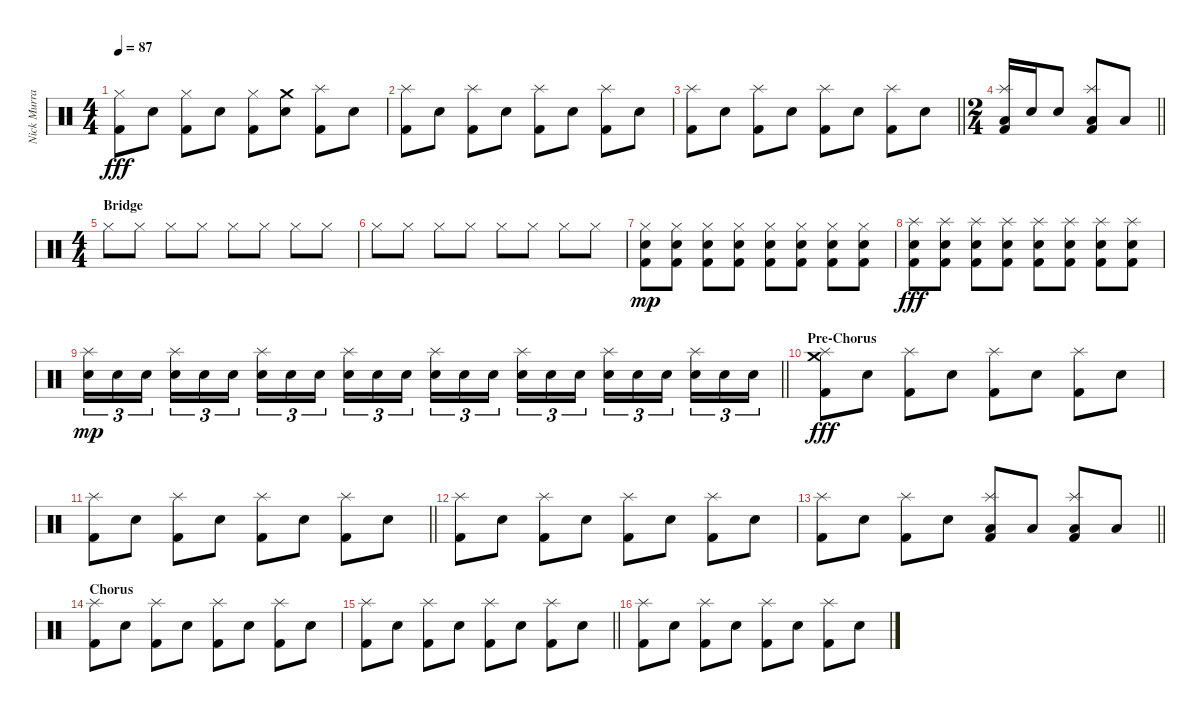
\track ("Nick Murray" "Nick Murra") {instrument percussion}
\staff {score}
\articulation defaults
\ts (4 4)
\tempo 87
\clef neutral
\ks c
("Hi-Hat (closed)" "Kick (hit) 2").8{dy fff} "Electric Snare (hit)".8 ("Hi-Hat (closed)" "Kick (hit) 2").8 "Electric Snare (hit)".8 ("Hi-Hat (closed)" "Kick (hit) 2").8 ("Crash medium (hit)" "Electric Snare (hit)").8 ("Splash (hit)" "Kick (hit) 2").8 "Electric Snare (hit)".8 |
("Splash (hit)" "Kick (hit) 2").8 "Electric Snare (hit)".8 ("Splash (hit)" "Kick (hit) 2").8 "Electric Snare (hit)".8 ("Splash (hit)" "Kick (hit) 2").8 "Electric Snare (hit)".8 ("Splash (hit)" "Kick (hit) 2").8 "Electric Snare (hit)".8 |
\barLineRight lightlight
("Splash (hit)" "Kick (hit) 2").8 "Electric Snare (hit)".8 ("Splash (hit)" "Kick (hit) 2").8 "Electric Snare (hit)".8 ("Splash (hit)" "Kick (hit) 2").8 "Electric Snare (hit)".8 ("Splash (hit)" "Kick (hit) 2").8 "Electric Snare (hit)".8 |
\ts (2 4)
\barLineRight lightlight
("Splash (hit)" "Low Floor Tom (hit)" "Kick (hit) 2").16 "Electric Snare (hit)".16 "Electric Snare (hit)".8 ("Splash (hit)" "Low Floor Tom (hit)" "Kick (hit) 2").8 "Low Floor Tom (hit)".8 |
\ts (4 4)
\section ("" "Bridge")
"Hi-Hat (closed)".8 "Hi-Hat (closed)".8 "Hi-Hat (closed)".8 "Hi-Hat (closed)".8 "Hi-Hat (closed)".8 "Hi-Hat (closed)".8 "Hi-Hat (closed)".8 "Hi-Hat (closed)".8 |
"Hi-Hat (closed)".8 "Hi-Hat (closed)".8 "Hi-Hat (closed)".8 "Hi-Hat (closed)".8 "Hi-Hat (closed)".8 "Hi-Hat (closed)".8 "Hi-Hat (closed)".8 "Hi-Hat (closed)".8 |
("Hi-Hat (closed)" "Electric Snare (hit)" "Kick (hit) 2").8{dy mp} ("Hi-Hat (closed)" "Electric Snare (hit)" "Kick (hit) 2").8 ("Hi-Hat (closed)" "Electric Snare (hit)" "Kick (hit) 2").8 ("Hi-Hat (closed)" "Electric Snare (hit)" "Kick (hit) 2").8 ("Hi-Hat (closed)" "Electric Snare (hit)" "Kick (hit) 2").8 ("Hi-Hat (closed)" "Electric Snare (hit)" "Kick (hit) 2").8 ("Hi-Hat (closed)" "Electric Snare (hit)" "Kick (hit) 2").8 ("Hi-Hat (closed)" "Electric Snare (hit)" "Kick (hit) 2").8 |
("Splash (hit)" "Electric Snare (hit)" "Kick (hit) 2").8{dy fff} ("Splash (hit)" "Electric Snare (hit)" "Kick (hit) 2").8 ("Splash (hit)" "Electric Snare (hit)" "Kick (hit) 2").8 ("Splash (hit)" "Electric Snare (hit)" "Kick (hit) 2").8 ("Splash (hit)" "Electric Snare (hit)" "Kick (hit) 2").8 ("Splash (hit)" "Electric Snare (hit)" "Kick (hit) 2").8 ("Splash (hit)" "Electric Snare (hit)" "Kick (hit) 2").8 ("Splash (hit)" "Electric Snare (hit)" "Kick (hit) 2").8 |
\barLineRight lightlight
("Splash (hit)" "Electric Snare (hit)").16{tu (3 2) dy mp} "Electric Snare (hit)".16{tu (3 2)} "Electric Snare (hit)".16{tu (3 2) beam splitsecondary} ("Splash (hit)" "Electric Snare (hit)").16{tu (3 2)} "Electric Snare (hit)".16{tu (3 2)} "Electric Snare (hit)".16{tu (3 2)} ("Splash (hit)" "Electric Snare (hit)").16{tu (3 2)} "Electric Snare (hit)".16{tu (3 2)} "Electric Snare (hit)".16{tu (3 2) beam splitsecondary} ("Splash (hit)" "Electric Snare (hit)").16{tu (3 2)} "Electric Snare (hit)".16{tu (3 2)} "Electric Snare (hit)".16{tu (3 2)} ("Splash (hit)" "Electric Snare (hit)").16{tu (3 2)} "Electric Snare (hit)".16{tu (3 2)} "Electric Snare (hit)".16{tu (3 2) beam splitsecondary} ("Splash (hit)" "Electric Snare (hit)").16{tu (3 2)} "Electric Snare (hit)".16{tu (3 2)} "Electric Snare (hit)".16{tu (3 2)} ("Splash (hit)" "Electric Snare (hit)").16{tu (3 2)} "Electric Snare (hit)".16{tu (3 2)} "Electric Snare (hit)".16{tu (3 2) beam splitsecondary} ("Splash (hit)" "Electric Snare (hit)").16{tu (3 2)} "Electric Snare (hit)".16{tu (3 2)} "Electric Snare (hit)".16{tu (3 2)} |
\section ("" "Pre-Chorus")
("Crash medium (hit)" "Splash (hit)" "Kick (hit) 2").8{dy fff} "Electric Snare (hit)".8 ("Splash (hit)" "Kick (hit) 2").8 "Electric Snare (hit)".8 ("Splash (hit)" "Kick (hit) 2").8 "Electric Snare (hit)".8 ("Splash (hit)" "Kick (hit) 2").8 "Electric Snare (hit)".8 |
\barLineRight lightlight
("Splash (hit)" "Kick (hit) 2").8 "Electric Snare (hit)".8 ("Splash (hit)" "Kick (hit) 2").8 "Electric Snare (hit)".8 ("Splash (hit)" "Kick (hit) 2").8 "Electric Snare (hit)".8 ("Splash (hit)" "Kick (hit) 2").8 "Electric Snare (hit)".8 |
("Splash (hit)" "Kick (hit) 2").8 "Electric Snare (hit)".8 ("Splash (hit)" "Kick (hit) 2").8 "Electric Snare (hit)".8 ("Splash (hit)" "Kick (hit) 2").8 "Electric Snare (hit)".8 ("Splash (hit)" "Kick (hit) 2").8 "Electric Snare (hit)".8 |
\barLineRight lightlight
("Splash (hit)" "Kick (hit) 2").8 "Electric Snare (hit)".8 ("Splash (hit)" "Kick (hit) 2").8 "Electric Snare (hit)".8 ("Splash (hit)" "Low Floor Tom (hit)" "Kick (hit) 2").8 "Low Floor Tom (hit)".8 ("Splash (hit)" "Low Floor Tom (hit)" "Kick (hit) 2").8 "Low Floor Tom (hit)".8 |
\section ("" "Chorus")
("Splash (hit)" "Kick (hit) 2").8 "Electric Snare (hit)".8 ("Splash (hit)" "Kick (hit) 2").8 "Electric Snare (hit)".8 ("Splash (hit)" "Kick (hit) 2").8 "Electric Snare (hit)".8 ("Splash (hit)" "Kick (hit) 2").8 "Electric Snare (hit)".8 |
\barLineRight lightlight
("Splash (hit)" "Kick (hit) 2").8 "Electric Snare (hit)".8 ("Splash (hit)" "Kick (hit) 2").8 "Electric Snare (hit)".8 ("Splash (hit)" "Kick (hit) 2").8 "Electric Snare (hit)".8 ("Splash (hit)" "Kick (hit) 2").8 "Electric Snare (hit)".8 |
("Splash (hit)" "Kick (hit) 2").8 "Electric Snare (hit)".8 ("Splash (hit)" "Kick (hit) 2").8 "Electric Snare (hit)".8 ("Splash (hit)" "Kick (hit) 2").8 "Electric Snare (hit)".8 ("Splash (hit)" "Kick (hit) 2").8 "Electric Snare (hit)".8
